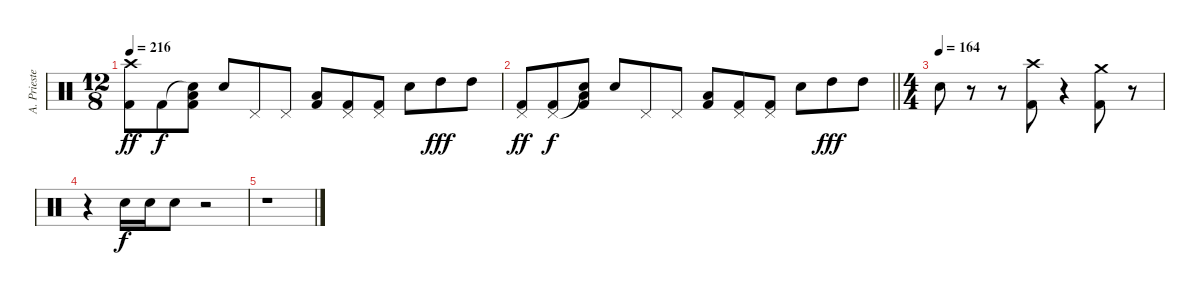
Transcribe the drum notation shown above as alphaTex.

\track ("A. Priester" "A. Prieste") {instrument percussion}
\staff {score}
\articulation defaults
\ts (12 8)
\tempo 216
\clef neutral
\ks c
("Crash high (hit)" "Kick (hit) 2").8{dy ff} "Kick (hit) 2".8{dy f} ("Snare (hit)"{t} "Low Floor Tom (hit)" "Kick (hit) 2").8 "Electric Snare (hit)".8 "Pedal Hi-Hat (hit)".8 "Pedal Hi-Hat (hit)".8 ("Low Floor Tom (hit)" "Kick (hit) 2").8 ("Pedal Hi-Hat (hit)" "Kick (hit) 2").8 ("Pedal Hi-Hat (hit)" "Kick (hit) 2").8 "Electric Snare (hit)".8 "High Tom (hit)".8{dy fff} "High Tom (hit)".8 |
\barLineRight lightlight
("Pedal Hi-Hat (hit)" "Kick (hit) 2").8{dy ff} ("Pedal Hi-Hat (hit)" "Kick (hit) 2").8{dy f} ("Snare (hit)"{t} "Low Floor Tom (hit)" "Kick (hit) 2").8 "Electric Snare (hit)".8 "Pedal Hi-Hat (hit)".8 "Pedal Hi-Hat (hit)".8 ("Low Floor Tom (hit)" "Kick (hit) 2").8 ("Pedal Hi-Hat (hit)" "Kick (hit) 2").8 ("Pedal Hi-Hat (hit)" "Kick (hit) 2").8 "Electric Snare (hit)".8 "High Tom (hit)".8{dy fff} "High Tom (hit)".8 |
\ts (4 4)
\tempo (164)
"Electric Snare (hit)".8 r.8 r.8 ("Crash high (hit)" "Kick (hit) 2").8 r.4 ("Crash medium (hit)" "Kick (hit) 2").8 r.8 |
r.4 "Electric Snare (hit)".16{dy f} "Electric Snare (hit)".16 "Electric Snare (hit)".8 r.2 |
r.1
